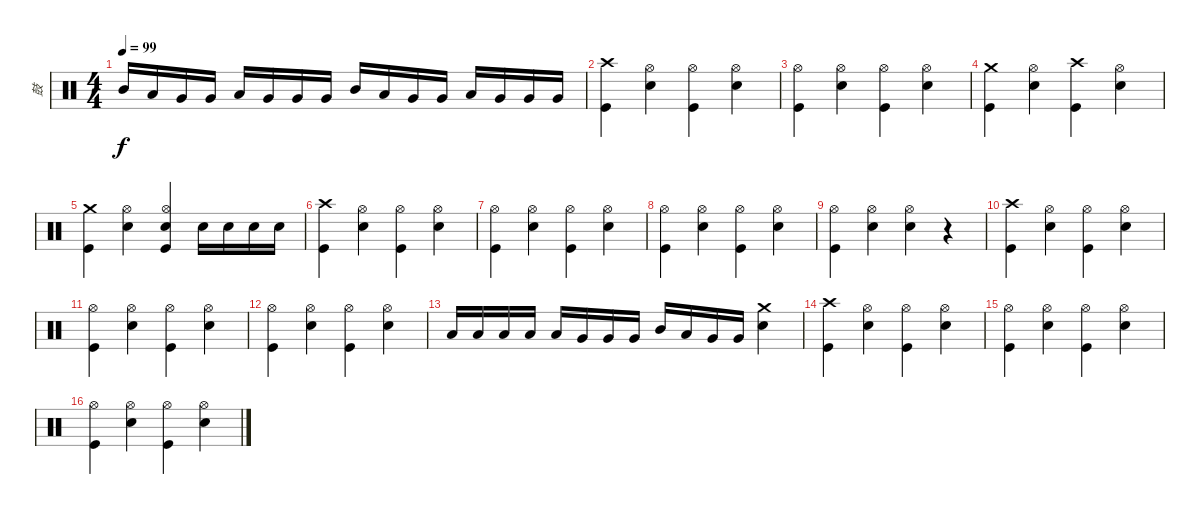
\track ("鼓" "鼓") {instrument percussion}
\staff {score}
\articulation defaults
\ts (4 4)
\tempo 99
\clef neutral
\ks c "Mid Tom (hit)".16{dy f} "Low Tom (hit)".16 "Very Low Tom (hit)".16 "Very Low Tom (hit)".16 "Low Tom (hit)".16 "Very Low Tom (hit)".16 "Very Low Tom (hit)".16 "Very Low Tom (hit)".16 "Mid Tom (hit)".16 "Low Tom (hit)".16 "Very Low Tom (hit)".16 "Very Low Tom (hit)".16 "Low Tom (hit)".16 "Very Low Tom (hit)".16 "Very Low Tom (hit)".16 "Very Low Tom (hit)".16
|
("Crash high (hit)" "Kick (hit)").4 ("Hi-Hat (open)" "Snare (hit) 2").4 ("Hi-Hat (open)" "Kick (hit)").4 ("Hi-Hat (open)" "Snare (hit) 2").4 |
("Hi-Hat (open)" "Kick (hit)").4 ("Hi-Hat (open)" "Snare (hit) 2").4 ("Hi-Hat (open)" "Kick (hit)").4 ("Hi-Hat (open)" "Snare (hit) 2").4 |
("Crash medium (hit)" "Kick (hit)").4 ("Hi-Hat (open)" "Snare (hit) 2").4 ("Crash high (hit)" "Kick (hit)").4 ("Hi-Hat (open)" "Snare (hit) 2").4 |
("Crash medium (hit)" "Kick (hit)").4 ("Hi-Hat (open)" "Snare (hit) 2").4 ("Hi-Hat (open)" "Kick (hit)" "Snare (hit) 2").4 "Snare (hit) 2".16 "Snare (hit) 2".16 "Snare (hit) 2".16 "Snare (hit) 2".16 |
("Crash high (hit)" "Kick (hit)").4 ("Hi-Hat (open)" "Snare (hit) 2").4 ("Hi-Hat (open)" "Kick (hit)").4 ("Hi-Hat (open)" "Snare (hit) 2").4 |
("Hi-Hat (open)" "Kick (hit)").4 ("Hi-Hat (open)" "Snare (hit) 2").4 ("Hi-Hat (open)" "Kick (hit)").4 ("Hi-Hat (open)" "Snare (hit) 2").4 |
("Hi-Hat (open)" "Kick (hit)").4 ("Hi-Hat (open)" "Snare (hit) 2").4 ("Hi-Hat (open)" "Kick (hit)").4 ("Hi-Hat (open)" "Snare (hit) 2").4 |
("Hi-Hat (open)" "Kick (hit)").4 ("Hi-Hat (open)" "Snare (hit) 2").4 ("Hi-Hat (open)" "Snare (hit) 2").4 r.4 |
("Crash high (hit)" "Kick (hit)").4 ("Hi-Hat (open)" "Snare (hit) 2").4 ("Hi-Hat (open)" "Kick (hit)").4 ("Hi-Hat (open)" "Snare (hit) 2").4 |
("Hi-Hat (open)" "Kick (hit)").4 ("Hi-Hat (open)" "Snare (hit) 2").4 ("Hi-Hat (open)" "Kick (hit)").4 ("Hi-Hat (open)" "Snare (hit) 2").4 |
("Hi-Hat (open)" "Kick (hit)").4 ("Hi-Hat (open)" "Snare (hit) 2").4 ("Hi-Hat (open)" "Kick (hit)").4 ("Hi-Hat (open)" "Snare (hit) 2").4 |
"Low Tom (hit)".16 "Low Tom (hit)".16 "Low Tom (hit)".16 "Low Tom (hit)".16 "Low Tom (hit)".16 "Very Low Tom (hit)".16 "Very Low Tom (hit)".16 "Very Low Tom (hit)".16 "Mid Tom (hit)".16 "Low Tom (hit)".16 "Very Low Tom (hit)".16 "Very Low Tom (hit)".16 ("Crash medium (hit)" "Snare (hit) 2").4 |
("Crash high (hit)" "Kick (hit)").4 ("Hi-Hat (open)" "Snare (hit) 2").4 ("Hi-Hat (open)" "Kick (hit)").4 ("Hi-Hat (open)" "Snare (hit) 2").4 |
("Hi-Hat (open)" "Kick (hit)").4 ("Hi-Hat (open)" "Snare (hit) 2").4 ("Hi-Hat (open)" "Kick (hit)").4 ("Hi-Hat (open)" "Snare (hit) 2").4 |
("Hi-Hat (open)" "Kick (hit)").4 ("Hi-Hat (open)" "Snare (hit) 2").4 ("Hi-Hat (open)" "Kick (hit)").4 ("Hi-Hat (open)" "Snare (hit) 2").4
